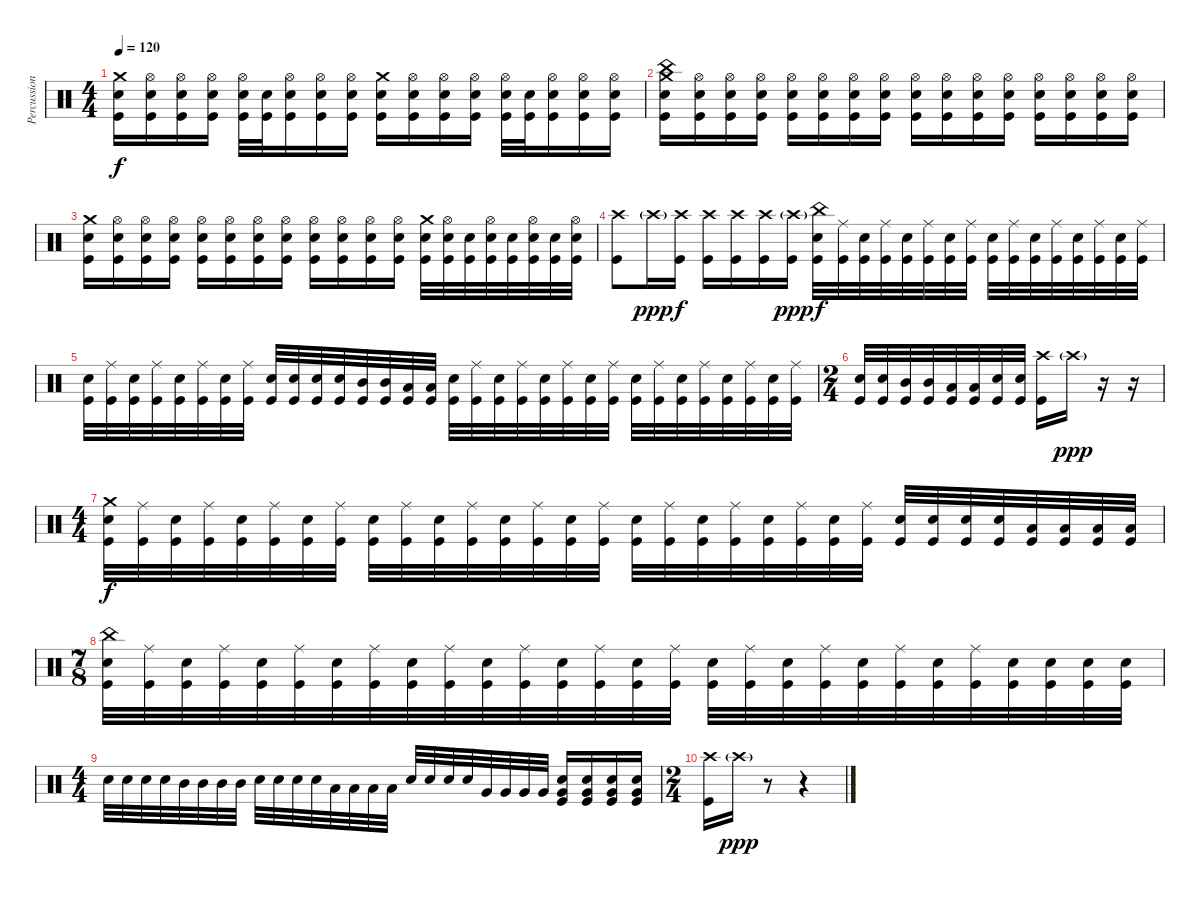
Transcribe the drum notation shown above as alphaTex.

\track ("Percussion" "Percussion") {instrument percussion}
\staff {score}
\articulation defaults
\ts (4 4)
\tempo 120
\clef neutral
\ks c
("Crash medium (hit)" "Electric Snare (hit)" "Kick (hit)").16{dy f} ("Hi-Hat (open)" "Electric Snare (hit)" "Kick (hit)").16 ("Hi-Hat (open)" "Electric Snare (hit)" "Kick (hit)").16 ("Hi-Hat (open)" "Electric Snare (hit)" "Kick (hit)").16 ("Hi-Hat (open)" "Electric Snare (hit)" "Kick (hit)").32 ("Electric Snare (hit)" "Kick (hit)").32 ("Hi-Hat (open)" "Electric Snare (hit)" "Kick (hit)").16 ("Hi-Hat (open)" "Electric Snare (hit)" "Kick (hit)").16 ("Hi-Hat (open)" "Electric Snare (hit)" "Kick (hit)").16 ("Crash medium (hit)" "Electric Snare (hit)" "Kick (hit)").16 ("Hi-Hat (open)" "Electric Snare (hit)" "Kick (hit)").16 ("Hi-Hat (open)" "Electric Snare (hit)" "Kick (hit)").16 ("Hi-Hat (open)" "Electric Snare (hit)" "Kick (hit)").16 ("Hi-Hat (open)" "Electric Snare (hit)" "Kick (hit)").32 ("Electric Snare (hit)" "Kick (hit)").32 ("Hi-Hat (open)" "Electric Snare (hit)" "Kick (hit)").16 ("Hi-Hat (open)" "Electric Snare (hit)" "Kick (hit)").16 ("Hi-Hat (open)" "Electric Snare (hit)" "Kick (hit)").16 |
("Crash medium (hit)" "China (hit)" "Electric Snare (hit)" "Kick (hit)").16 ("Hi-Hat (open)" "Electric Snare (hit)" "Kick (hit)").16 ("Hi-Hat (open)" "Electric Snare (hit)" "Kick (hit)").16 ("Hi-Hat (open)" "Electric Snare (hit)" "Kick (hit)").16 ("Hi-Hat (open)" "Electric Snare (hit)" "Kick (hit)").16 ("Hi-Hat (open)" "Electric Snare (hit)" "Kick (hit)").16 ("Hi-Hat (open)" "Electric Snare (hit)" "Kick (hit)").16 ("Hi-Hat (open)" "Electric Snare (hit)" "Kick (hit)").16 ("Hi-Hat (open)" "Electric Snare (hit)" "Kick (hit)").16 ("Hi-Hat (open)" "Electric Snare (hit)" "Kick (hit)").16 ("Hi-Hat (open)" "Electric Snare (hit)" "Kick (hit)").16 ("Hi-Hat (open)" "Electric Snare (hit)" "Kick (hit)").16 ("Hi-Hat (open)" "Electric Snare (hit)" "Kick (hit)").16 ("Hi-Hat (open)" "Electric Snare (hit)" "Kick (hit)").16 ("Hi-Hat (open)" "Electric Snare (hit)" "Kick (hit)").16 ("Hi-Hat (open)" "Electric Snare (hit)" "Kick (hit)").16 |
("Crash medium (hit)" "Electric Snare (hit)" "Kick (hit)").16 ("Hi-Hat (open)" "Electric Snare (hit)" "Kick (hit)").16 ("Hi-Hat (open)" "Electric Snare (hit)" "Kick (hit)").16 ("Hi-Hat (open)" "Electric Snare (hit)" "Kick (hit)").16 ("Hi-Hat (open)" "Electric Snare (hit)" "Kick (hit)").16 ("Hi-Hat (open)" "Electric Snare (hit)" "Kick (hit)").16 ("Hi-Hat (open)" "Electric Snare (hit)" "Kick (hit)").16 ("Hi-Hat (open)" "Electric Snare (hit)" "Kick (hit)").16 ("Hi-Hat (open)" "Electric Snare (hit)" "Kick (hit)").16 ("Hi-Hat (open)" "Electric Snare (hit)" "Kick (hit)").16 ("Hi-Hat (open)" "Electric Snare (hit)" "Kick (hit)").16 ("Hi-Hat (open)" "Electric Snare (hit)" "Kick (hit)").16 ("Crash medium (hit)" "Electric Snare (hit)" "Kick (hit)").32 ("Hi-Hat (open)" "Electric Snare (hit)" "Kick (hit)").32 ("Electric Snare (hit)" "Kick (hit)").32 ("Hi-Hat (open)" "Electric Snare (hit)" "Kick (hit)").32 ("Electric Snare (hit)" "Kick (hit)").32 ("Hi-Hat (open)" "Electric Snare (hit)" "Kick (hit)").32 ("Electric Snare (hit)" "Kick (hit)").32 ("Hi-Hat (open)" "Electric Snare (hit)" "Kick (hit)").32 |
("Crash high (hit)" "Kick (hit)").8 "Crash high (hit)"{g}.16{dy ppp} ("Crash high (hit)" "Kick (hit)").16{dy f} ("Crash high (hit)" "Kick (hit)").16 ("Crash high (hit)" "Kick (hit)").16 ("Crash high (hit)" "Kick (hit)").16 ("Crash high (hit)"{g} "Kick (hit)").16{dy ppp} ("China (hit)" "Electric Snare (hit)" "Kick (hit)").32{dy f} ("Ride (middle)" "Kick (hit)").32 ("Electric Snare (hit)" "Kick (hit)").32 ("Ride (middle)" "Kick (hit)").32 ("Electric Snare (hit)" "Kick (hit)").32 ("Ride (middle)" "Kick (hit)").32 ("Electric Snare (hit)" "Kick (hit)").32 ("Ride (middle)" "Kick (hit)").32 ("Electric Snare (hit)" "Kick (hit)").32 ("Ride (middle)" "Kick (hit)").32 ("Electric Snare (hit)" "Kick (hit)").32 ("Ride (middle)" "Kick (hit)").32 ("Electric Snare (hit)" "Kick (hit)").32 ("Ride (middle)" "Kick (hit)").32 ("Electric Snare (hit)" "Kick (hit)").32 ("Ride (middle)" "Kick (hit)").32 |
("Electric Snare (hit)" "Kick (hit)").32 ("Ride (middle)" "Kick (hit)").32 ("Electric Snare (hit)" "Kick (hit)").32 ("Ride (middle)" "Kick (hit)").32 ("Electric Snare (hit)" "Kick (hit)").32 ("Ride (middle)" "Kick (hit)").32 ("Electric Snare (hit)" "Kick (hit)").32 ("Ride (middle)" "Kick (hit)").32 ("Electric Snare (hit)" "Kick (hit)").32 ("Electric Snare (hit)" "Kick (hit)").32 ("Electric Snare (hit)" "Kick (hit)").32 ("Electric Snare (hit)" "Kick (hit)").32 ("Mid Tom (hit)" "Kick (hit)").32 ("Mid Tom (hit)" "Kick (hit)").32 ("Low Tom (hit)" "Kick (hit)").32 ("Low Tom (hit)" "Kick (hit)").32 ("Electric Snare (hit)" "Kick (hit)").32 ("Ride (middle)" "Kick (hit)").32 ("Electric Snare (hit)" "Kick (hit)").32 ("Ride (middle)" "Kick (hit)").32 ("Electric Snare (hit)" "Kick (hit)").32 ("Ride (middle)" "Kick (hit)").32 ("Electric Snare (hit)" "Kick (hit)").32 ("Ride (middle)" "Kick (hit)").32 ("Electric Snare (hit)" "Kick (hit)").32 ("Ride (middle)" "Kick (hit)").32 ("Electric Snare (hit)" "Kick (hit)").32 ("Ride (middle)" "Kick (hit)").32 ("Electric Snare (hit)" "Kick (hit)").32 ("Ride (middle)" "Kick (hit)").32 ("Electric Snare (hit)" "Kick (hit)").32 ("Ride (middle)" "Kick (hit)").32 |
\ts (2 4)
("Electric Snare (hit)" "Kick (hit)").32 ("Electric Snare (hit)" "Kick (hit)").32 ("Mid Tom (hit)" "Kick (hit)").32 ("Mid Tom (hit)" "Kick (hit)").32 ("Low Tom (hit)" "Kick (hit)").32 ("Low Tom (hit)" "Kick (hit)").32 ("Electric Snare (hit)" "Kick (hit)").32 ("Electric Snare (hit)" "Kick (hit)").32 ("Crash high (hit)" "Kick (hit)").16 "Crash high (hit)"{g}.16{dy ppp} r.16 r.16 |
\ts (4 4)
("Crash medium (hit)" "Electric Snare (hit)" "Kick (hit)").32{dy f} ("Ride (middle)" "Kick (hit)").32 ("Electric Snare (hit)" "Kick (hit)").32 ("Ride (middle)" "Kick (hit)").32 ("Electric Snare (hit)" "Kick (hit)").32 ("Ride (middle)" "Kick (hit)").32 ("Electric Snare (hit)" "Kick (hit)").32 ("Ride (middle)" "Kick (hit)").32 ("Electric Snare (hit)" "Kick (hit)").32 ("Ride (middle)" "Kick (hit)").32 ("Electric Snare (hit)" "Kick (hit)").32 ("Ride (middle)" "Kick (hit)").32 ("Electric Snare (hit)" "Kick (hit)").32 ("Ride (middle)" "Kick (hit)").32 ("Electric Snare (hit)" "Kick (hit)").32 ("Ride (middle)" "Kick (hit)").32 ("Electric Snare (hit)" "Kick (hit)").32 ("Ride (middle)" "Kick (hit)").32 ("Electric Snare (hit)" "Kick (hit)").32 ("Ride (middle)" "Kick (hit)").32 ("Electric Snare (hit)" "Kick (hit)").32 ("Ride (middle)" "Kick (hit)").32 ("Electric Snare (hit)" "Kick (hit)").32 ("Ride (middle)" "Kick (hit)").32 ("Electric Snare (hit)" "Kick (hit)").32 ("Electric Snare (hit)" "Kick (hit)").32 ("Electric Snare (hit)" "Kick (hit)").32 ("Electric Snare (hit)" "Kick (hit)").32 ("Low Tom (hit)" "Kick (hit)").32 ("Low Tom (hit)" "Kick (hit)").32 ("Low Tom (hit)" "Kick (hit)").32 ("Low Tom (hit)" "Kick (hit)").32 |
\ts (7 8)
("China (hit)" "Electric Snare (hit)" "Kick (hit)").32 ("Ride (middle)" "Kick (hit)").32 ("Electric Snare (hit)" "Kick (hit)").32 ("Ride (middle)" "Kick (hit)").32 ("Electric Snare (hit)" "Kick (hit)").32 ("Ride (middle)" "Kick (hit)").32 ("Electric Snare (hit)" "Kick (hit)").32 ("Ride (middle)" "Kick (hit)").32 ("Electric Snare (hit)" "Kick (hit)").32 ("Ride (middle)" "Kick (hit)").32 ("Electric Snare (hit)" "Kick (hit)").32 ("Ride (middle)" "Kick (hit)").32 ("Electric Snare (hit)" "Kick (hit)").32 ("Ride (middle)" "Kick (hit)").32 ("Electric Snare (hit)" "Kick (hit)").32 ("Ride (middle)" "Kick (hit)").32 ("Electric Snare (hit)" "Kick (hit)").32 ("Ride (middle)" "Kick (hit)").32 ("Electric Snare (hit)" "Kick (hit)").32 ("Ride (middle)" "Kick (hit)").32 ("Electric Snare (hit)" "Kick (hit)").32 ("Ride (middle)" "Kick (hit)").32 ("Electric Snare (hit)" "Kick (hit)").32 ("Ride (middle)" "Kick (hit)").32 ("Electric Snare (hit)" "Kick (hit)").32 ("Electric Snare (hit)" "Kick (hit)").32 ("Electric Snare (hit)" "Kick (hit)").32 ("Electric Snare (hit)" "Kick (hit)").32 |
\ts (4 4)
"Electric Snare (hit)".32 "Electric Snare (hit)".32 "Electric Snare (hit)".32 "Electric Snare (hit)".32 "Mid Tom (hit)".32 "Mid Tom (hit)".32 "Mid Tom (hit)".32 "Mid Tom (hit)".32 "Electric Snare (hit)".32 "Electric Snare (hit)".32 "Electric Snare (hit)".32 "Electric Snare (hit)".32 "Low Tom (hit)".32 "Low Tom (hit)".32 "Low Tom (hit)".32 "Low Tom (hit)".32 "Electric Snare (hit)".32 "Electric Snare (hit)".32 "Electric Snare (hit)".32 "Electric Snare (hit)".32 "Very Low Tom (hit)".32 "Very Low Tom (hit)".32 "Very Low Tom (hit)".32 "Very Low Tom (hit)".32 ("Electric Snare (hit)" "Very Low Tom (hit)" "Kick (hit)").16 ("Electric Snare (hit)" "Very Low Tom (hit)" "Kick (hit)").16 ("Electric Snare (hit)" "Very Low Tom (hit)" "Kick (hit)").16 ("Electric Snare (hit)" "Very Low Tom (hit)" "Kick (hit)").16 |
\ts (2 4)
("Crash high (hit)" "Kick (hit)").16 "Crash high (hit)"{g}.16{dy ppp} r.8 r.4
